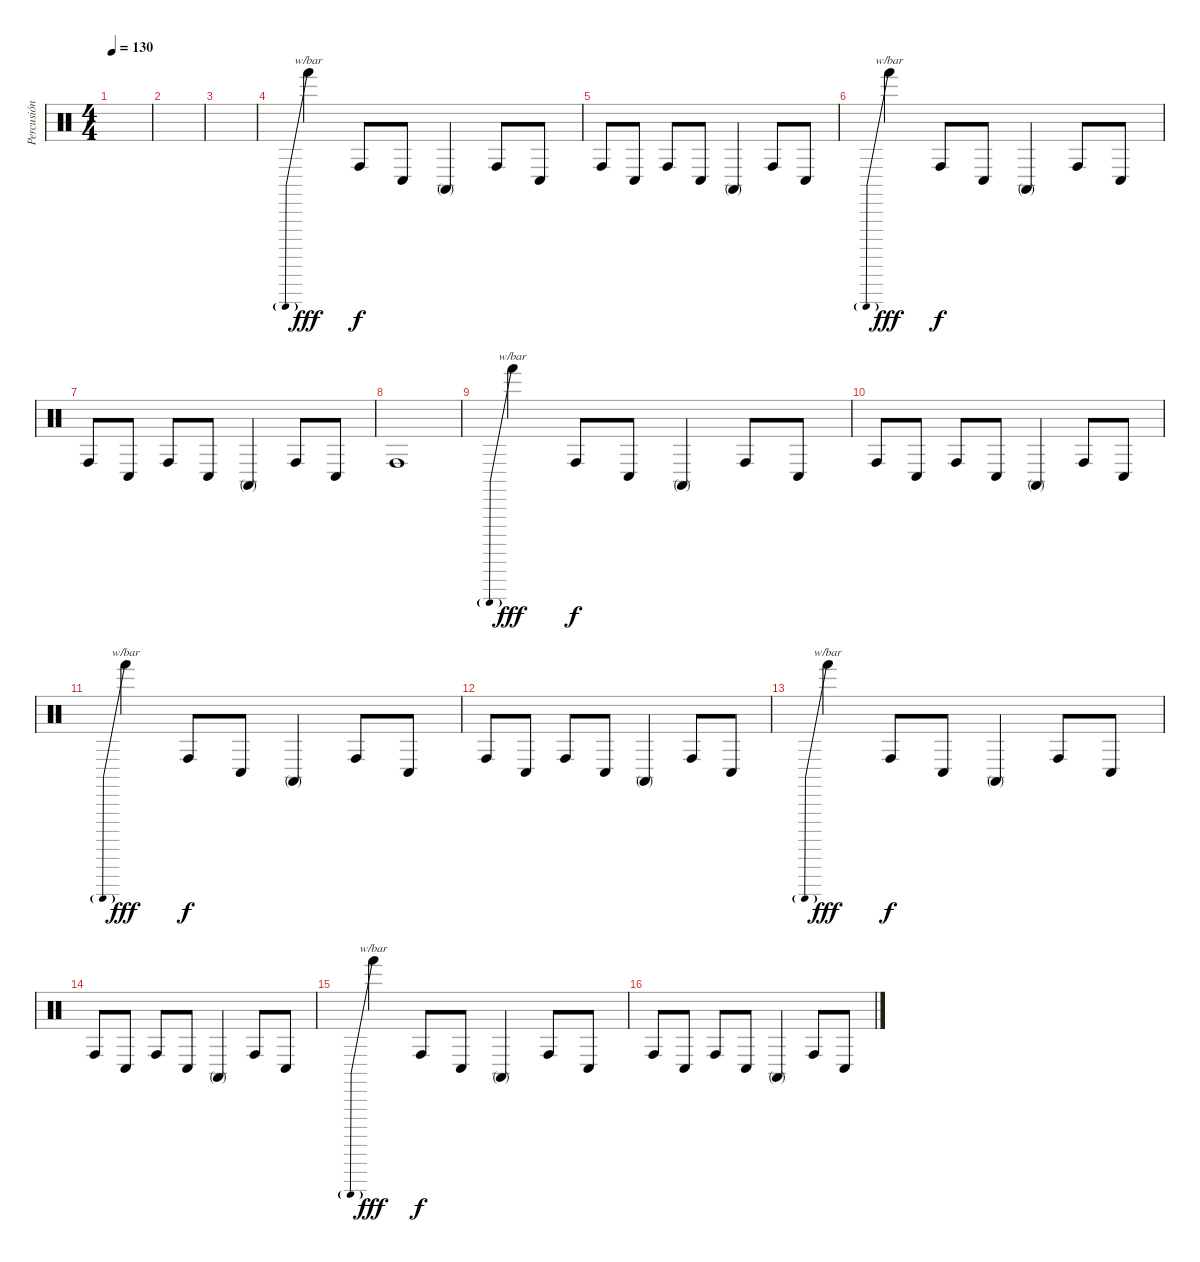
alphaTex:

\track ("Percusión" "Percusión") {instrument percussion}
\staff {score}
\articulation defaults
\ts (4 4)
\tempo 130
\clef neutral
\ks c
|
|
|
"Hand (hit)".4{tbe (predive default 0 -8 60 -8) dy fff} "Conga high (hit)".8{dy f} "Conga low (hit)".8 "Conga high (mute)".4 "Conga high (hit)".8 "Conga low (hit)".8 |
"Conga high (hit)".8 "Conga low (hit)".8 "Conga high (hit)".8 "Conga low (hit)".8 "Conga high (mute)".4 "Conga high (hit)".8 "Conga low (hit)".8 |
"Hand (hit)".4{tbe (predive default 0 -8 60 -8) dy fff} "Conga high (hit)".8{dy f} "Conga low (hit)".8 "Conga high (mute)".4 "Conga high (hit)".8 "Conga low (hit)".8 |
"Conga high (hit)".8 "Conga low (hit)".8 "Conga high (hit)".8 "Conga low (hit)".8 "Conga high (mute)".4 "Conga high (hit)".8 "Conga low (hit)".8 |
"Conga high (hit)".1 |
"Hand (hit)".4{tbe (predive default 0 -8 60 -8) dy fff} "Conga high (hit)".8{dy f} "Conga low (hit)".8 "Conga high (mute)".4 "Conga high (hit)".8 "Conga low (hit)".8 |
"Conga high (hit)".8 "Conga low (hit)".8 "Conga high (hit)".8 "Conga low (hit)".8 "Conga high (mute)".4 "Conga high (hit)".8 "Conga low (hit)".8 |
"Hand (hit)".4{tbe (predive default 0 -8 60 -8) dy fff} "Conga high (hit)".8{dy f} "Conga low (hit)".8 "Conga high (mute)".4 "Conga high (hit)".8 "Conga low (hit)".8 |
"Conga high (hit)".8 "Conga low (hit)".8 "Conga high (hit)".8 "Conga low (hit)".8 "Conga high (mute)".4 "Conga high (hit)".8 "Conga low (hit)".8 |
"Hand (hit)".4{tbe (predive default 0 -8 60 -8) dy fff} "Conga high (hit)".8{dy f} "Conga low (hit)".8 "Conga high (mute)".4 "Conga high (hit)".8 "Conga low (hit)".8 |
"Conga high (hit)".8 "Conga low (hit)".8 "Conga high (hit)".8 "Conga low (hit)".8 "Conga high (mute)".4 "Conga high (hit)".8 "Conga low (hit)".8 |
"Hand (hit)".4{tbe (predive default 0 -8 60 -8) dy fff} "Conga high (hit)".8{dy f} "Conga low (hit)".8 "Conga high (mute)".4 "Conga high (hit)".8 "Conga low (hit)".8 |
"Conga high (hit)".8 "Conga low (hit)".8 "Conga high (hit)".8 "Conga low (hit)".8 "Conga high (mute)".4 "Conga high (hit)".8 "Conga low (hit)".8
